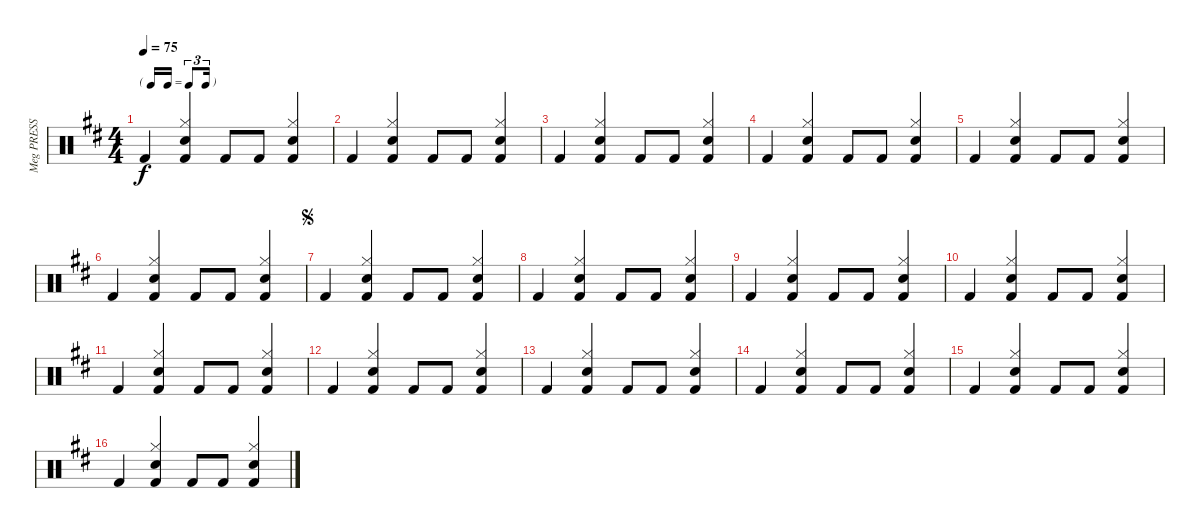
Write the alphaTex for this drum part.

\track ("Meg PRESS F5!!" "Meg PRESS ") {instrument percussion}
\staff {score}
\articulation defaults
\ts (4 4)
\tf triplet16th
\tempo 75
\clef neutral
\ks d "Kick (hit) 2".4{dy f}
("Kick (hit) 2" "Hi-Hat (closed)" "Snare (hit) 2").4 "Kick (hit) 2".8 "Kick (hit) 2".8 ("Kick (hit) 2" "Hi-Hat (closed)" "Snare (hit) 2").4 |
"Kick (hit) 2".4 ("Kick (hit) 2" "Hi-Hat (closed)" "Snare (hit) 2").4 "Kick (hit) 2".8 "Kick (hit) 2".8 ("Kick (hit) 2" "Hi-Hat (closed)" "Snare (hit) 2").4 |
"Kick (hit) 2".4 ("Kick (hit) 2" "Hi-Hat (closed)" "Snare (hit) 2").4 "Kick (hit) 2".8 "Kick (hit) 2".8 ("Kick (hit) 2" "Hi-Hat (closed)" "Snare (hit) 2").4 |
"Kick (hit) 2".4 ("Kick (hit) 2" "Hi-Hat (closed)" "Snare (hit) 2").4 "Kick (hit) 2".8 "Kick (hit) 2".8 ("Kick (hit) 2" "Hi-Hat (closed)" "Snare (hit) 2").4 |
"Kick (hit) 2".4 ("Kick (hit) 2" "Hi-Hat (closed)" "Snare (hit) 2").4 "Kick (hit) 2".8 "Kick (hit) 2".8 ("Kick (hit) 2" "Hi-Hat (closed)" "Snare (hit) 2").4 |
"Kick (hit) 2".4 ("Kick (hit) 2" "Hi-Hat (closed)" "Snare (hit) 2").4 "Kick (hit) 2".8 "Kick (hit) 2".8 ("Kick (hit) 2" "Hi-Hat (closed)" "Snare (hit) 2").4 |
\jump segno "Kick (hit) 2".4
("Kick (hit) 2" "Hi-Hat (closed)" "Snare (hit) 2").4 "Kick (hit) 2".8 "Kick (hit) 2".8 ("Kick (hit) 2" "Hi-Hat (closed)" "Snare (hit) 2").4 |
"Kick (hit) 2".4 ("Kick (hit) 2" "Hi-Hat (closed)" "Snare (hit) 2").4 "Kick (hit) 2".8 "Kick (hit) 2".8 ("Kick (hit) 2" "Hi-Hat (closed)" "Snare (hit) 2").4 |
"Kick (hit) 2".4 ("Kick (hit) 2" "Hi-Hat (closed)" "Snare (hit) 2").4 "Kick (hit) 2".8 "Kick (hit) 2".8 ("Kick (hit) 2" "Hi-Hat (closed)" "Snare (hit) 2").4 |
"Kick (hit) 2".4 ("Kick (hit) 2" "Hi-Hat (closed)" "Snare (hit) 2").4 "Kick (hit) 2".8 "Kick (hit) 2".8 ("Kick (hit) 2" "Hi-Hat (closed)" "Snare (hit) 2").4 |
"Kick (hit) 2".4 ("Kick (hit) 2" "Hi-Hat (closed)" "Snare (hit) 2").4 "Kick (hit) 2".8 "Kick (hit) 2".8 ("Kick (hit) 2" "Hi-Hat (closed)" "Snare (hit) 2").4 |
"Kick (hit) 2".4 ("Kick (hit) 2" "Hi-Hat (closed)" "Snare (hit) 2").4 "Kick (hit) 2".8 "Kick (hit) 2".8 ("Kick (hit) 2" "Hi-Hat (closed)" "Snare (hit) 2").4 |
"Kick (hit) 2".4 ("Kick (hit) 2" "Hi-Hat (closed)" "Snare (hit) 2").4 "Kick (hit) 2".8 "Kick (hit) 2".8 ("Kick (hit) 2" "Hi-Hat (closed)" "Snare (hit) 2").4 |
"Kick (hit) 2".4 ("Kick (hit) 2" "Hi-Hat (closed)" "Snare (hit) 2").4 "Kick (hit) 2".8 "Kick (hit) 2".8 ("Kick (hit) 2" "Hi-Hat (closed)" "Snare (hit) 2").4 |
"Kick (hit) 2".4 ("Kick (hit) 2" "Hi-Hat (closed)" "Snare (hit) 2").4 "Kick (hit) 2".8 "Kick (hit) 2".8 ("Kick (hit) 2" "Hi-Hat (closed)" "Snare (hit) 2").4 |
"Kick (hit) 2".4 ("Kick (hit) 2" "Hi-Hat (closed)" "Snare (hit) 2").4 "Kick (hit) 2".8 "Kick (hit) 2".8 ("Kick (hit) 2" "Hi-Hat (closed)" "Snare (hit) 2").4
